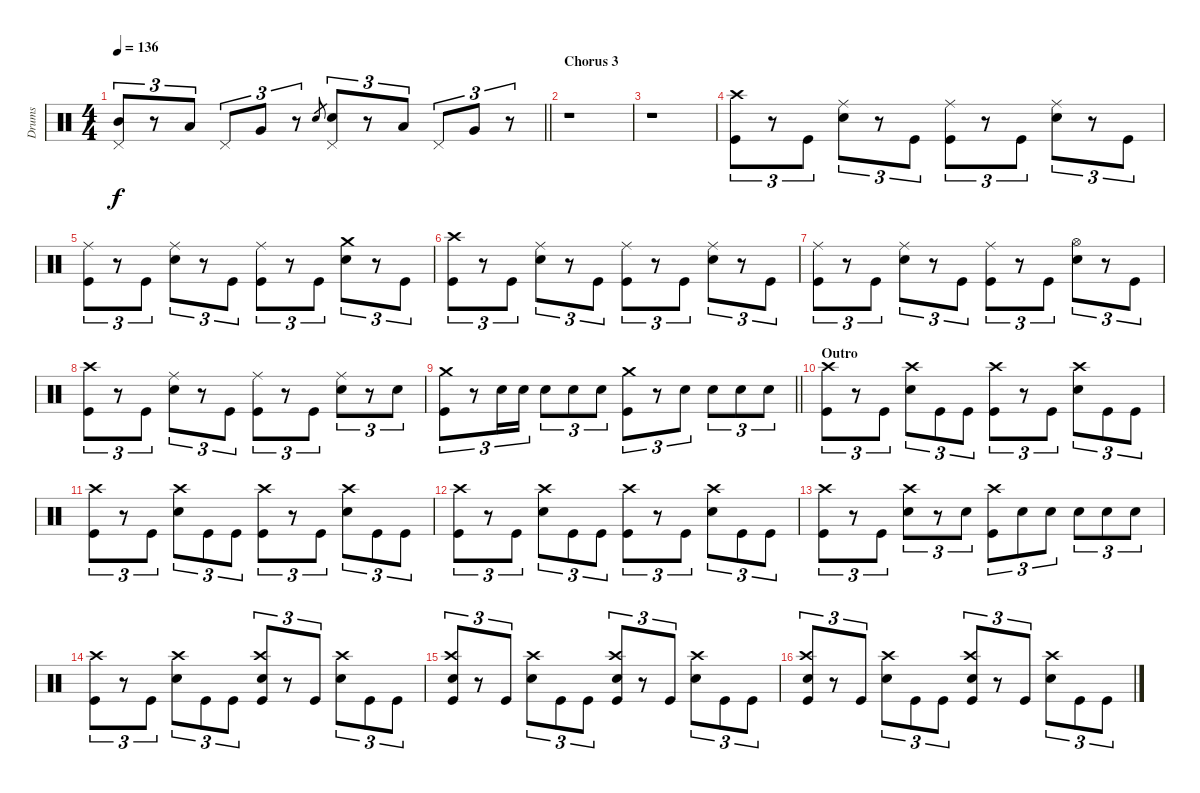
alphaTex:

\track ("Drums" "Drums") {instrument percussion}
\staff {score}
\articulation defaults
\ts (4 4)
\tempo 136
\clef neutral
\barLineRight lightlight
\ks c
("Mid Tom (hit)" "Pedal Hi-Hat (hit)").8{tu (3 2) dy f} r.8{tu (3 2)} "Low Tom (hit)".8{tu (3 2)} "Pedal Hi-Hat (hit)".8{tu (3 2)} "Very Low Tom (hit)".8{tu (3 2)} r.8{tu (3 2)} "Electric Snare (hit)".8{gr} ("Electric Snare (hit)" "Pedal Hi-Hat (hit)").8{tu (3 2)} r.8{tu (3 2)} "Low Tom (hit)".8{tu (3 2)} "Pedal Hi-Hat (hit)".8{tu (3 2)} "Very Low Tom (hit)".8{tu (3 2)} r.8{tu (3 2)} |
\section ("" "Chorus 3")
r.1 |
r.1 |
("Crash high (hit)" "Kick (hit)").8{tu (3 2)} r.8{tu (3 2)} "Kick (hit)".8{tu (3 2)} ("Ride (middle)" "Electric Snare (hit)").8{tu (3 2)} r.8{tu (3 2)} "Kick (hit)".8{tu (3 2)} ("Ride (middle)" "Kick (hit)").8{tu (3 2)} r.8{tu (3 2)} "Kick (hit)".8{tu (3 2)} ("Ride (middle)" "Electric Snare (hit)").8{tu (3 2)} r.8{tu (3 2)} "Kick (hit)".8{tu (3 2)} |
("Ride (middle)" "Kick (hit)").8{tu (3 2)} r.8{tu (3 2)} "Kick (hit)".8{tu (3 2)} ("Ride (middle)" "Electric Snare (hit)").8{tu (3 2)} r.8{tu (3 2)} "Kick (hit)".8{tu (3 2)} ("Ride (middle)" "Kick (hit)").8{tu (3 2)} r.8{tu (3 2)} "Kick (hit)".8{tu (3 2)} ("Crash medium (hit)" "Electric Snare (hit)").8{tu (3 2)} r.8{tu (3 2)} "Kick (hit)".8{tu (3 2)} |
("Crash high (hit)" "Kick (hit)").8{tu (3 2)} r.8{tu (3 2)} "Kick (hit)".8{tu (3 2)} ("Ride (middle)" "Electric Snare (hit)").8{tu (3 2)} r.8{tu (3 2)} "Kick (hit)".8{tu (3 2)} ("Ride (middle)" "Kick (hit)").8{tu (3 2)} r.8{tu (3 2)} "Kick (hit)".8{tu (3 2)} ("Ride (middle)" "Electric Snare (hit)").8{tu (3 2)} r.8{tu (3 2)} "Kick (hit)".8{tu (3 2)} |
("Ride (middle)" "Kick (hit)").8{tu (3 2)} r.8{tu (3 2)} "Kick (hit)".8{tu (3 2)} ("Ride (middle)" "Electric Snare (hit)").8{tu (3 2)} r.8{tu (3 2)} "Kick (hit)".8{tu (3 2)} ("Ride (middle)" "Kick (hit)").8{tu (3 2)} r.8{tu (3 2)} "Kick (hit)".8{tu (3 2)} ("Hi-Hat (open)" "Electric Snare (hit)").8{tu (3 2)} r.8{tu (3 2)} "Kick (hit)".8{tu (3 2)} |
("Crash high (hit)" "Kick (hit)").8{tu (3 2)} r.8{tu (3 2)} "Kick (hit)".8{tu (3 2)} ("Ride (middle)" "Electric Snare (hit)").8{tu (3 2)} r.8{tu (3 2)} "Kick (hit)".8{tu (3 2)} ("Ride (middle)" "Kick (hit)").8{tu (3 2)} r.8{tu (3 2)} "Kick (hit)".8{tu (3 2)} ("Ride (middle)" "Electric Snare (hit)").8{tu (3 2)} r.8{tu (3 2)} "Electric Snare (hit)".8{tu (3 2)} |
\barLineRight lightlight
("Crash medium (hit)" "Kick (hit)").8{tu (3 2)} r.8{tu (3 2)} "Electric Snare (hit)".16{tu (3 2)} "Electric Snare (hit)".16{tu (3 2)} "Electric Snare (hit)".8{tu (3 2)} "Electric Snare (hit)".8{tu (3 2)} "Electric Snare (hit)".8{tu (3 2)} ("Crash medium (hit)" "Kick (hit)").8{tu (3 2)} r.8{tu (3 2)} "Electric Snare (hit)".8{tu (3 2)} "Electric Snare (hit)".8{tu (3 2)} "Electric Snare (hit)".8{tu (3 2)} "Electric Snare (hit)".8{tu (3 2)} |
\section ("" "Outro")
("Crash high (hit)" "Kick (hit)").8{tu (3 2)} r.8{tu (3 2)} "Kick (hit)".8{tu (3 2)} ("Crash high (hit)" "Electric Snare (hit)").8{tu (3 2)} "Kick (hit)".8{tu (3 2)} "Kick (hit)".8{tu (3 2)} ("Crash high (hit)" "Kick (hit)").8{tu (3 2)} r.8{tu (3 2)} "Kick (hit)".8{tu (3 2)} ("Crash high (hit)" "Electric Snare (hit)").8{tu (3 2)} "Kick (hit)".8{tu (3 2)} "Kick (hit)".8{tu (3 2)} |
("Crash high (hit)" "Kick (hit)").8{tu (3 2)} r.8{tu (3 2)} "Kick (hit)".8{tu (3 2)} ("Crash high (hit)" "Electric Snare (hit)").8{tu (3 2)} "Kick (hit)".8{tu (3 2)} "Kick (hit)".8{tu (3 2)} ("Crash high (hit)" "Kick (hit)").8{tu (3 2)} r.8{tu (3 2)} "Kick (hit)".8{tu (3 2)} ("Crash high (hit)" "Electric Snare (hit)").8{tu (3 2)} "Kick (hit)".8{tu (3 2)} "Kick (hit)".8{tu (3 2)} |
("Crash high (hit)" "Kick (hit)").8{tu (3 2)} r.8{tu (3 2)} "Kick (hit)".8{tu (3 2)} ("Crash high (hit)" "Electric Snare (hit)").8{tu (3 2)} "Kick (hit)".8{tu (3 2)} "Kick (hit)".8{tu (3 2)} ("Crash high (hit)" "Kick (hit)").8{tu (3 2)} r.8{tu (3 2)} "Kick (hit)".8{tu (3 2)} ("Crash high (hit)" "Electric Snare (hit)").8{tu (3 2)} "Kick (hit)".8{tu (3 2)} "Kick (hit)".8{tu (3 2)} |
("Crash high (hit)" "Kick (hit)").8{tu (3 2)} r.8{tu (3 2)} "Kick (hit)".8{tu (3 2)} ("Crash high (hit)" "Electric Snare (hit)").8{tu (3 2)} r.8{tu (3 2)} "Electric Snare (hit)".8{tu (3 2)} ("Crash high (hit)" "Kick (hit)").8{tu (3 2)} "Electric Snare (hit)".8{tu (3 2)} "Electric Snare (hit)".8{tu (3 2)} "Electric Snare (hit)".8{tu (3 2)} "Electric Snare (hit)".8{tu (3 2)} "Electric Snare (hit)".8{tu (3 2)} |
("Crash high (hit)" "Kick (hit)").8{tu (3 2)} r.8{tu (3 2)} "Kick (hit)".8{tu (3 2)} ("Crash high (hit)" "Electric Snare (hit)").8{tu (3 2)} "Kick (hit)".8{tu (3 2)} "Kick (hit)".8{tu (3 2)} ("Crash high (hit)" "Electric Snare (hit)" "Kick (hit)").8{tu (3 2)} r.8{tu (3 2)} "Kick (hit)".8{tu (3 2)} ("Crash high (hit)" "Electric Snare (hit)").8{tu (3 2)} "Kick (hit)".8{tu (3 2)} "Kick (hit)".8{tu (3 2)} |
("Crash high (hit)" "Electric Snare (hit)" "Kick (hit)").8{tu (3 2)} r.8{tu (3 2)} "Kick (hit)".8{tu (3 2)} ("Crash high (hit)" "Electric Snare (hit)").8{tu (3 2)} "Kick (hit)".8{tu (3 2)} "Kick (hit)".8{tu (3 2)} ("Crash high (hit)" "Electric Snare (hit)" "Kick (hit)").8{tu (3 2)} r.8{tu (3 2)} "Kick (hit)".8{tu (3 2)} ("Crash high (hit)" "Electric Snare (hit)").8{tu (3 2)} "Kick (hit)".8{tu (3 2)} "Kick (hit)".8{tu (3 2)} |
("Crash high (hit)" "Electric Snare (hit)" "Kick (hit)").8{tu (3 2)} r.8{tu (3 2)} "Kick (hit)".8{tu (3 2)} ("Crash high (hit)" "Electric Snare (hit)").8{tu (3 2)} "Kick (hit)".8{tu (3 2)} "Kick (hit)".8{tu (3 2)} ("Crash high (hit)" "Electric Snare (hit)" "Kick (hit)").8{tu (3 2)} r.8{tu (3 2)} "Kick (hit)".8{tu (3 2)} ("Crash high (hit)" "Electric Snare (hit)").8{tu (3 2)} "Kick (hit)".8{tu (3 2)} "Kick (hit)".8{tu (3 2)}
